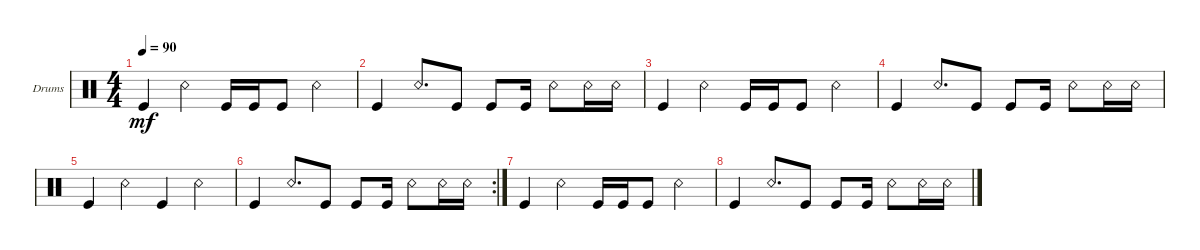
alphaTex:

\defaultSystemsLayout 4
\bracketExtendMode groupsimilarinstruments
\firstSystemTrackNameOrientation horizontal
\otherSystemsTrackNameOrientation horizontal
\track ("Drumkit" "Drums") {solo instrument percussion}
\staff {score}
\articulation defaults
\ts (4 4)
\tempo 90
\clef neutral
\ks c "Kick (hit)".4{dy mf} "Snare (rim shot)".4 "Kick (hit)".16 "Kick (hit)".16 "Kick (hit)".8 "Snare (rim shot)".4
|
"Kick (hit)".4 "Snare (rim shot)".8{d} "Kick (hit)".8 "Kick (hit)".8 "Kick (hit)".16 "Snare (rim shot)".8 "Snare (rim shot)".16 "Snare (rim shot)".16 |
"Kick (hit)".4 "Snare (rim shot)".4 "Kick (hit)".16 "Kick (hit)".16 "Kick (hit)".8 "Snare (rim shot)".4 |
"Kick (hit)".4 "Snare (rim shot)".8{d} "Kick (hit)".8 "Kick (hit)".8 "Kick (hit)".16 "Snare (rim shot)".8 "Snare (rim shot)".16 "Snare (rim shot)".16 |
"Kick (hit)".4 "Snare (rim shot)".4 "Kick (hit)".4 "Snare (rim shot)".4 |
\rc 2 "Kick (hit)".4 "Snare (rim shot)".8{d} "Kick (hit)".8 "Kick (hit)".8 "Kick (hit)".16 "Snare (rim shot)".8 "Snare (rim shot)".16 "Snare (rim shot)".16
|
"Kick (hit)".4 "Snare (rim shot)".4 "Kick (hit)".16 "Kick (hit)".16 "Kick (hit)".8 "Snare (rim shot)".4 |
"Kick (hit)".4 "Snare (rim shot)".8{d} "Kick (hit)".8 "Kick (hit)".8 "Kick (hit)".16 "Snare (rim shot)".8 "Snare (rim shot)".16 "Snare (rim shot)".16
